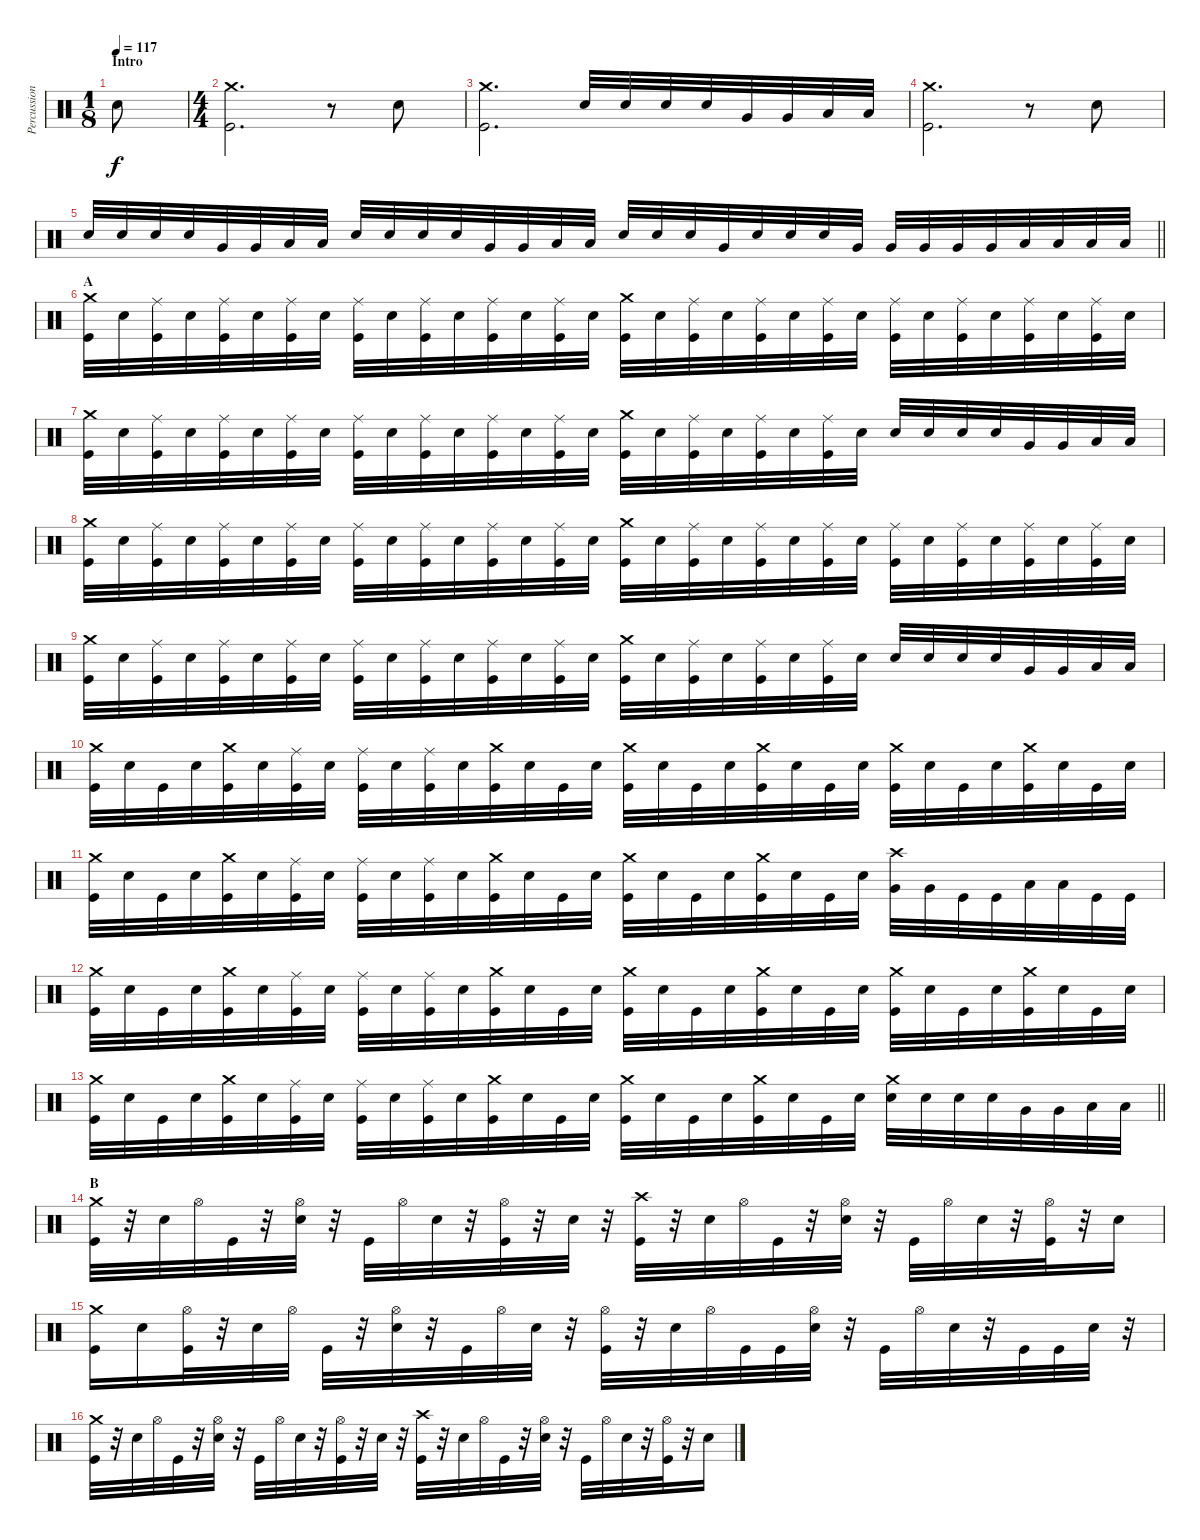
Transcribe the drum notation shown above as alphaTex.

\track ("Percussion" "Percussion") {instrument percussion}
\staff {score}
\articulation defaults
\ts (1 8)
\section ("" "Intro")
\tempo 117
\clef neutral
\ks c "Snare (hit) 2".8{dy f}
|
\ts (4 4)
("Kick (hit)" "Crash medium (hit)").2{d} r.8 "Snare (hit) 2".8 |
("Kick (hit)" "Crash medium (hit)").2{d} "Snare (hit) 2".32 "Snare (hit) 2".32 "Snare (hit) 2".32 "Snare (hit) 2".32 "Very Low Tom (hit)".32 "Very Low Tom (hit)".32 "Low Floor Tom (hit)".32 "Low Floor Tom (hit)".32 |
("Kick (hit)" "Crash medium (hit)").2{d} r.8 "Snare (hit) 2".8 |
\barLineRight lightlight "Snare (hit) 2".32 "Snare (hit) 2".32 "Snare (hit) 2".32 "Snare (hit) 2".32 "Very Low Tom (hit)".32 "Very Low Tom (hit)".32 "Low Floor Tom (hit)".32 "Low Floor Tom (hit)".32 "Snare (hit) 2".32 "Snare (hit) 2".32 "Snare (hit) 2".32 "Snare (hit) 2".32 "Very Low Tom (hit)".32 "Very Low Tom (hit)".32 "Low Floor Tom (hit)".32 "Low Floor Tom (hit)".32 "Snare (hit) 2".32 "Snare (hit) 2".32 "Snare (hit) 2".32 "Very Low Tom (hit)".32 "Snare (hit) 2".32 "Snare (hit) 2".32 "Snare (hit) 2".32 "Very Low Tom (hit)".32 "Very Low Tom (hit)".32 "Very Low Tom (hit)".32 "Very Low Tom (hit)".32 "Very Low Tom (hit)".32 "Low Floor Tom (hit)".32 "Low Floor Tom (hit)".32 "Low Floor Tom (hit)".32 "Low Floor Tom (hit)".32
|
\section ("" "A")
("Kick (hit)" "Crash medium (hit)").32 "Snare (hit) 2".32 ("Kick (hit)" "Ride (middle)").32 "Snare (hit) 2".32 ("Kick (hit)" "Ride (middle)").32 "Snare (hit) 2".32 ("Kick (hit)" "Ride (middle)").32 "Snare (hit) 2".32 ("Kick (hit)" "Ride (middle)").32 "Snare (hit) 2".32 ("Kick (hit)" "Ride (middle)").32 "Snare (hit) 2".32 ("Kick (hit)" "Ride (middle)").32 "Snare (hit) 2".32 ("Kick (hit)" "Ride (middle)").32 "Snare (hit) 2".32 ("Kick (hit)" "Crash medium (hit)").32 "Snare (hit) 2".32 ("Kick (hit)" "Ride (middle)").32 "Snare (hit) 2".32 ("Kick (hit)" "Ride (middle)").32 "Snare (hit) 2".32 ("Kick (hit)" "Ride (middle)").32 "Snare (hit) 2".32 ("Kick (hit)" "Ride (middle)").32 "Snare (hit) 2".32 ("Kick (hit)" "Ride (middle)").32 "Snare (hit) 2".32 ("Kick (hit)" "Ride (middle)").32 "Snare (hit) 2".32 ("Kick (hit)" "Ride (middle)").32 "Snare (hit) 2".32 |
("Kick (hit)" "Crash medium (hit)").32 "Snare (hit) 2".32 ("Kick (hit)" "Ride (middle)").32 "Snare (hit) 2".32 ("Kick (hit)" "Ride (middle)").32 "Snare (hit) 2".32 ("Kick (hit)" "Ride (middle)").32 "Snare (hit) 2".32 ("Kick (hit)" "Ride (middle)").32 "Snare (hit) 2".32 ("Kick (hit)" "Ride (middle)").32 "Snare (hit) 2".32 ("Kick (hit)" "Ride (middle)").32 "Snare (hit) 2".32 ("Kick (hit)" "Ride (middle)").32 "Snare (hit) 2".32 ("Kick (hit)" "Crash medium (hit)").32 "Snare (hit) 2".32 ("Kick (hit)" "Ride (middle)").32 "Snare (hit) 2".32 ("Kick (hit)" "Ride (middle)").32 "Snare (hit) 2".32 ("Kick (hit)" "Ride (middle)").32 "Snare (hit) 2".32 "Snare (hit) 2".32 "Snare (hit) 2".32 "Snare (hit) 2".32 "Snare (hit) 2".32 "Very Low Tom (hit)".32 "Very Low Tom (hit)".32 "Low Floor Tom (hit)".32 "Low Floor Tom (hit)".32 |
("Kick (hit)" "Crash medium (hit)").32 "Snare (hit) 2".32 ("Kick (hit)" "Ride (middle)").32 "Snare (hit) 2".32 ("Kick (hit)" "Ride (middle)").32 "Snare (hit) 2".32 ("Kick (hit)" "Ride (middle)").32 "Snare (hit) 2".32 ("Kick (hit)" "Ride (middle)").32 "Snare (hit) 2".32 ("Kick (hit)" "Ride (middle)").32 "Snare (hit) 2".32 ("Kick (hit)" "Ride (middle)").32 "Snare (hit) 2".32 ("Kick (hit)" "Ride (middle)").32 "Snare (hit) 2".32 ("Kick (hit)" "Crash medium (hit)").32 "Snare (hit) 2".32 ("Kick (hit)" "Ride (middle)").32 "Snare (hit) 2".32 ("Kick (hit)" "Ride (middle)").32 "Snare (hit) 2".32 ("Kick (hit)" "Ride (middle)").32 "Snare (hit) 2".32 ("Kick (hit)" "Ride (middle)").32 "Snare (hit) 2".32 ("Kick (hit)" "Ride (middle)").32 "Snare (hit) 2".32 ("Kick (hit)" "Ride (middle)").32 "Snare (hit) 2".32 ("Kick (hit)" "Ride (middle)").32 "Snare (hit) 2".32 |
("Kick (hit)" "Crash medium (hit)").32 "Snare (hit) 2".32 ("Kick (hit)" "Ride (middle)").32 "Snare (hit) 2".32 ("Kick (hit)" "Ride (middle)").32 "Snare (hit) 2".32 ("Kick (hit)" "Ride (middle)").32 "Snare (hit) 2".32 ("Kick (hit)" "Ride (middle)").32 "Snare (hit) 2".32 ("Kick (hit)" "Ride (middle)").32 "Snare (hit) 2".32 ("Kick (hit)" "Ride (middle)").32 "Snare (hit) 2".32 ("Kick (hit)" "Ride (middle)").32 "Snare (hit) 2".32 ("Kick (hit)" "Crash medium (hit)").32 "Snare (hit) 2".32 ("Kick (hit)" "Ride (middle)").32 "Snare (hit) 2".32 ("Kick (hit)" "Ride (middle)").32 "Snare (hit) 2".32 ("Kick (hit)" "Ride (middle)").32 "Snare (hit) 2".32 "Snare (hit) 2".32 "Snare (hit) 2".32 "Snare (hit) 2".32 "Snare (hit) 2".32 "Very Low Tom (hit)".32 "Very Low Tom (hit)".32 "Low Floor Tom (hit)".32 "Low Floor Tom (hit)".32 |
("Kick (hit)" "Crash medium (hit)").32 "Snare (hit) 2".32 "Kick (hit)".32 "Snare (hit) 2".32 ("Kick (hit)" "Crash medium (hit)").32 "Snare (hit) 2".32 ("Kick (hit)" "Ride (middle)").32 "Snare (hit) 2".32 ("Kick (hit)" "Ride (middle)").32 "Snare (hit) 2".32 ("Kick (hit)" "Ride (middle)").32 "Snare (hit) 2".32 ("Kick (hit)" "Crash medium (hit)").32 "Snare (hit) 2".32 "Kick (hit)".32 "Snare (hit) 2".32 ("Kick (hit)" "Crash medium (hit)").32 "Snare (hit) 2".32 "Kick (hit)".32 "Snare (hit) 2".32 ("Kick (hit)" "Crash medium (hit)").32 "Snare (hit) 2".32 "Kick (hit)".32 "Snare (hit) 2".32 ("Kick (hit)" "Crash medium (hit)").32 "Snare (hit) 2".32 "Kick (hit)".32 "Snare (hit) 2".32 ("Kick (hit)" "Crash medium (hit)").32 "Snare (hit) 2".32 "Kick (hit)".32 "Snare (hit) 2".32 |
("Kick (hit)" "Crash medium (hit)").32 "Snare (hit) 2".32 "Kick (hit)".32 "Snare (hit) 2".32 ("Kick (hit)" "Crash medium (hit)").32 "Snare (hit) 2".32 ("Kick (hit)" "Ride (middle)").32 "Snare (hit) 2".32 ("Kick (hit)" "Ride (middle)").32 "Snare (hit) 2".32 ("Kick (hit)" "Ride (middle)").32 "Snare (hit) 2".32 ("Kick (hit)" "Crash medium (hit)").32 "Snare (hit) 2".32 "Kick (hit)".32 "Snare (hit) 2".32 ("Kick (hit)" "Crash medium (hit)").32 "Snare (hit) 2".32 "Kick (hit)".32 "Snare (hit) 2".32 ("Kick (hit)" "Crash medium (hit)").32 "Snare (hit) 2".32 "Kick (hit)".32 "Snare (hit) 2".32 ("Very Low Tom (hit)" "Crash high (hit)").32 "Very Low Tom (hit)".32 "Kick (hit)".32 "Kick (hit)".32 "Low Floor Tom (hit)".32 "Low Floor Tom (hit)".32 "Kick (hit)".32 "Kick (hit)".32 |
("Kick (hit)" "Crash medium (hit)").32 "Snare (hit) 2".32 "Kick (hit)".32 "Snare (hit) 2".32 ("Kick (hit)" "Crash medium (hit)").32 "Snare (hit) 2".32 ("Kick (hit)" "Ride (middle)").32 "Snare (hit) 2".32 ("Kick (hit)" "Ride (middle)").32 "Snare (hit) 2".32 ("Kick (hit)" "Ride (middle)").32 "Snare (hit) 2".32 ("Kick (hit)" "Crash medium (hit)").32 "Snare (hit) 2".32 "Kick (hit)".32 "Snare (hit) 2".32 ("Kick (hit)" "Crash medium (hit)").32 "Snare (hit) 2".32 "Kick (hit)".32 "Snare (hit) 2".32 ("Kick (hit)" "Crash medium (hit)").32 "Snare (hit) 2".32 "Kick (hit)".32 "Snare (hit) 2".32 ("Kick (hit)" "Crash medium (hit)").32 "Snare (hit) 2".32 "Kick (hit)".32 "Snare (hit) 2".32 ("Kick (hit)" "Crash medium (hit)").32 "Snare (hit) 2".32 "Kick (hit)".32 "Snare (hit) 2".32 |
\barLineRight lightlight
("Kick (hit)" "Crash medium (hit)").32 "Snare (hit) 2".32 "Kick (hit)".32 "Snare (hit) 2".32 ("Kick (hit)" "Crash medium (hit)").32 "Snare (hit) 2".32 ("Kick (hit)" "Ride (middle)").32 "Snare (hit) 2".32 ("Kick (hit)" "Ride (middle)").32 "Snare (hit) 2".32 ("Kick (hit)" "Ride (middle)").32 "Snare (hit) 2".32 ("Kick (hit)" "Crash medium (hit)").32 "Snare (hit) 2".32 "Kick (hit)".32 "Snare (hit) 2".32 ("Kick (hit)" "Crash medium (hit)").32 "Snare (hit) 2".32 "Kick (hit)".32 "Snare (hit) 2".32 ("Kick (hit)" "Crash medium (hit)").32 "Snare (hit) 2".32 "Kick (hit)".32 "Snare (hit) 2".32 ("Snare (hit) 2" "Crash medium (hit)").32 "Snare (hit) 2".32 "Snare (hit) 2".32 "Snare (hit) 2".32 "Very Low Tom (hit)".32 "Very Low Tom (hit)".32 "Low Floor Tom (hit)".32 "Low Floor Tom (hit)".32 |
\section ("" "B")
("Kick (hit)" "Crash medium (hit)").32 r.32 "Snare (hit) 2".32 "Hi-Hat (open)".32 "Kick (hit)".32 r.32 ("Snare (hit) 2" "Hi-Hat (open)").32 r.32 "Kick (hit)".32 "Hi-Hat (open)".32 "Snare (hit) 2".32 r.32 ("Kick (hit)" "Hi-Hat (open)").32 r.32 "Snare (hit) 2".32 r.32 ("Kick (hit)" "Crash high (hit)").32 r.32 "Snare (hit) 2".32 "Hi-Hat (open)".32 "Kick (hit)".32 r.32 ("Snare (hit) 2" "Hi-Hat (open)").32 r.32 "Kick (hit)".32 "Hi-Hat (open)".32 "Snare (hit) 2".32 r.32 ("Kick (hit)" "Hi-Hat (open)").32 r.32 "Snare (hit) 2".16 |
("Kick (hit)" "Crash medium (hit)").16 "Snare (hit) 2".16 ("Kick (hit)" "Hi-Hat (open)").32 r.32 "Snare (hit) 2".32 "Hi-Hat (open)".32 "Kick (hit)".32 r.32 ("Snare (hit) 2" "Hi-Hat (open)").32 r.32 "Kick (hit)".32 "Hi-Hat (open)".32 "Snare (hit) 2".32 r.32 ("Kick (hit)" "Hi-Hat (open)").32 r.32 "Snare (hit) 2".32 "Hi-Hat (open)".32 "Kick (hit)".32 "Kick (hit)".32 ("Snare (hit) 2" "Hi-Hat (open)").32 r.32 "Kick (hit)".32 "Hi-Hat (open)".32 "Snare (hit) 2".32 r.32 "Kick (hit)".32 "Kick (hit)".32 "Snare (hit) 2".32 r.32 |
("Kick (hit)" "Crash medium (hit)").32 r.32 "Snare (hit) 2".32 "Hi-Hat (open)".32 "Kick (hit)".32 r.32 ("Snare (hit) 2" "Hi-Hat (open)").32 r.32 "Kick (hit)".32 "Hi-Hat (open)".32 "Snare (hit) 2".32 r.32 ("Kick (hit)" "Hi-Hat (open)").32 r.32 "Snare (hit) 2".32 r.32 ("Kick (hit)" "Crash high (hit)").32 r.32 "Snare (hit) 2".32 "Hi-Hat (open)".32 "Kick (hit)".32 r.32 ("Snare (hit) 2" "Hi-Hat (open)").32 r.32 "Kick (hit)".32 "Hi-Hat (open)".32 "Snare (hit) 2".32 r.32 ("Kick (hit)" "Hi-Hat (open)").32 r.32 "Snare (hit) 2".16
